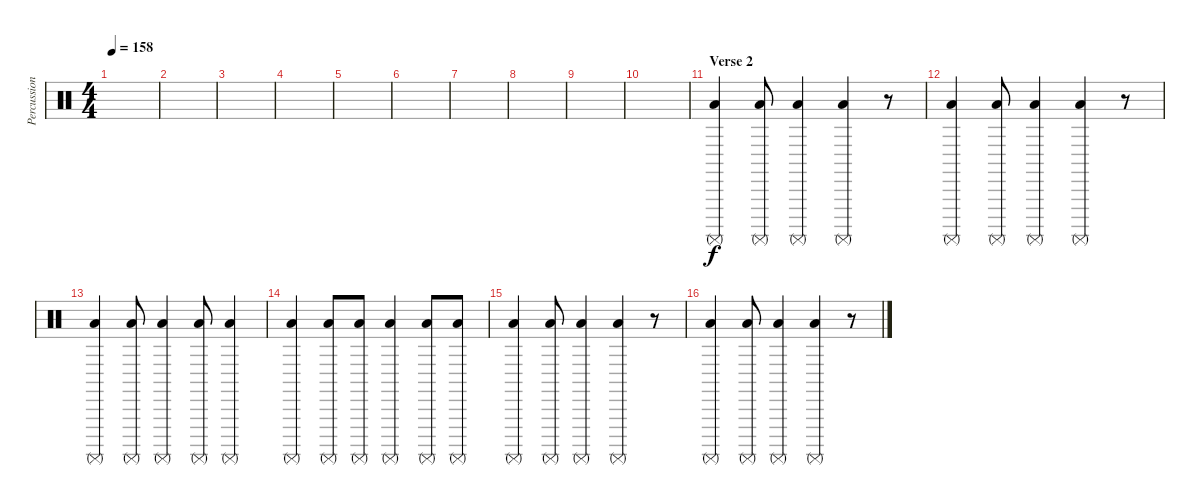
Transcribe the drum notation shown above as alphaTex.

\track ("Percussion" "Percussion") {instrument percussion}
\staff {score}
\articulation defaults
\ts (4 4)
\tempo 158
\clef neutral
\ks c
|
|
|
|
|
|
|
|
|
|
\section ("" "Verse 2")
("Low Floor Tom (hit)" "Surdo (mute)").4 ("Low Floor Tom (hit)" "Surdo (mute)").8 ("Low Floor Tom (hit)" "Surdo (mute)").4 ("Low Floor Tom (hit)" "Surdo (mute)").4 r.8 |
("Low Floor Tom (hit)" "Surdo (mute)").4 ("Low Floor Tom (hit)" "Surdo (mute)").8 ("Low Floor Tom (hit)" "Surdo (mute)").4 ("Low Floor Tom (hit)" "Surdo (mute)").4 r.8 |
("Low Floor Tom (hit)" "Surdo (mute)").4 ("Low Floor Tom (hit)" "Surdo (mute)").8 ("Low Floor Tom (hit)" "Surdo (mute)").4 ("Low Floor Tom (hit)" "Surdo (mute)").8 ("Low Floor Tom (hit)" "Surdo (mute)").4 |
("Low Floor Tom (hit)" "Surdo (mute)").4 ("Low Floor Tom (hit)" "Surdo (mute)").8 ("Low Floor Tom (hit)" "Surdo (mute)").8 ("Low Floor Tom (hit)" "Surdo (mute)").4 ("Low Floor Tom (hit)" "Surdo (mute)").8 ("Low Floor Tom (hit)" "Surdo (mute)").8 |
("Low Floor Tom (hit)" "Surdo (mute)").4 ("Low Floor Tom (hit)" "Surdo (mute)").8 ("Low Floor Tom (hit)" "Surdo (mute)").4 ("Low Floor Tom (hit)" "Surdo (mute)").4 r.8 |
("Low Floor Tom (hit)" "Surdo (mute)").4 ("Low Floor Tom (hit)" "Surdo (mute)").8 ("Low Floor Tom (hit)" "Surdo (mute)").4 ("Low Floor Tom (hit)" "Surdo (mute)").4 r.8
